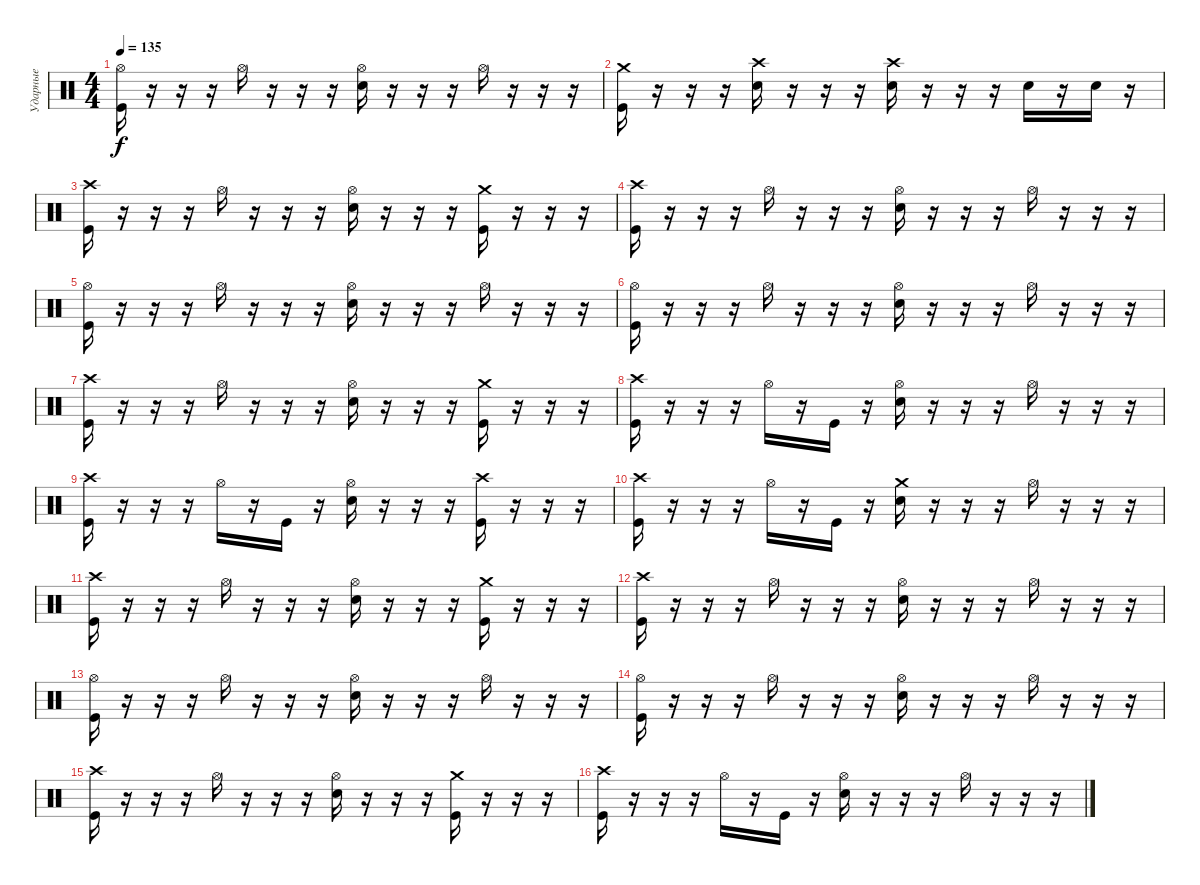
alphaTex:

\track ("Ударные" "Ударные") {instrument percussion}
\staff {score}
\articulation defaults
\ts (4 4)
\tempo 135
\clef neutral
\ks c
("Hi-Hat (open)" "Kick (hit)").16{dy f} r.16 r.16 r.16 "Hi-Hat (open)".16 r.16 r.16 r.16 ("Hi-Hat (open)" "Electric Snare (hit)").16 r.16 r.16 r.16 "Hi-Hat (open)".16 r.16 r.16 r.16 |
("Crash medium (hit)" "Kick (hit)").16 r.16 r.16 r.16 ("Crash high (hit)" "Electric Snare (hit)").16 r.16 r.16 r.16 ("Crash high (hit)" "Electric Snare (hit)").16 r.16 r.16 r.16 "Electric Snare (hit)".16 r.16 "Electric Snare (hit)".16 r.16 |
("Crash high (hit)" "Kick (hit)").16 r.16 r.16 r.16 "Hi-Hat (open)".16 r.16 r.16 r.16 ("Hi-Hat (open)" "Electric Snare (hit)").16 r.16 r.16 r.16 ("Crash medium (hit)" "Kick (hit)").16 r.16 r.16 r.16 |
("Crash high (hit)" "Kick (hit)").16 r.16 r.16 r.16 "Hi-Hat (open)".16 r.16 r.16 r.16 ("Hi-Hat (open)" "Electric Snare (hit)").16 r.16 r.16 r.16 "Hi-Hat (open)".16 r.16 r.16 r.16 |
("Hi-Hat (open)" "Kick (hit)").16 r.16 r.16 r.16 "Hi-Hat (open)".16 r.16 r.16 r.16 ("Hi-Hat (open)" "Electric Snare (hit)").16 r.16 r.16 r.16 "Hi-Hat (open)".16 r.16 r.16 r.16 |
("Hi-Hat (open)" "Kick (hit)").16 r.16 r.16 r.16 "Hi-Hat (open)".16 r.16 r.16 r.16 ("Hi-Hat (open)" "Electric Snare (hit)").16 r.16 r.16 r.16 "Hi-Hat (open)".16 r.16 r.16 r.16 |
("Crash high (hit)" "Kick (hit)").16 r.16 r.16 r.16 "Hi-Hat (open)".16 r.16 r.16 r.16 ("Hi-Hat (open)" "Electric Snare (hit)").16 r.16 r.16 r.16 ("Crash medium (hit)" "Kick (hit)").16 r.16 r.16 r.16 |
("Crash high (hit)" "Kick (hit)").16 r.16 r.16 r.16 "Hi-Hat (open)".16 r.16 "Kick (hit)".16 r.16 ("Hi-Hat (open)" "Electric Snare (hit)").16 r.16 r.16 r.16 "Hi-Hat (open)".16 r.16 r.16 r.16 |
("Crash high (hit)" "Kick (hit)").16 r.16 r.16 r.16 "Hi-Hat (open)".16 r.16 "Kick (hit)".16 r.16 ("Hi-Hat (open)" "Electric Snare (hit)").16 r.16 r.16 r.16 ("Crash high (hit)" "Kick (hit)").16 r.16 r.16 r.16 |
("Crash high (hit)" "Kick (hit)").16 r.16 r.16 r.16 "Hi-Hat (open)".16 r.16 "Kick (hit)".16 r.16 ("Crash medium (hit)" "Electric Snare (hit)").16 r.16 r.16 r.16 "Hi-Hat (open)".16 r.16 r.16 r.16 |
("Crash high (hit)" "Kick (hit)").16 r.16 r.16 r.16 "Hi-Hat (open)".16 r.16 r.16 r.16 ("Hi-Hat (open)" "Electric Snare (hit)").16 r.16 r.16 r.16 ("Crash medium (hit)" "Kick (hit)").16 r.16 r.16 r.16 |
("Crash high (hit)" "Kick (hit)").16 r.16 r.16 r.16 "Hi-Hat (open)".16 r.16 r.16 r.16 ("Hi-Hat (open)" "Electric Snare (hit)").16 r.16 r.16 r.16 "Hi-Hat (open)".16 r.16 r.16 r.16 |
("Hi-Hat (open)" "Kick (hit)").16 r.16 r.16 r.16 "Hi-Hat (open)".16 r.16 r.16 r.16 ("Hi-Hat (open)" "Electric Snare (hit)").16 r.16 r.16 r.16 "Hi-Hat (open)".16 r.16 r.16 r.16 |
("Hi-Hat (open)" "Kick (hit)").16 r.16 r.16 r.16 "Hi-Hat (open)".16 r.16 r.16 r.16 ("Hi-Hat (open)" "Electric Snare (hit)").16 r.16 r.16 r.16 "Hi-Hat (open)".16 r.16 r.16 r.16 |
("Crash high (hit)" "Kick (hit)").16 r.16 r.16 r.16 "Hi-Hat (open)".16 r.16 r.16 r.16 ("Hi-Hat (open)" "Electric Snare (hit)").16 r.16 r.16 r.16 ("Crash medium (hit)" "Kick (hit)").16 r.16 r.16 r.16 |
("Crash high (hit)" "Kick (hit)").16 r.16 r.16 r.16 "Hi-Hat (open)".16 r.16 "Kick (hit)".16 r.16 ("Hi-Hat (open)" "Electric Snare (hit)").16 r.16 r.16 r.16 "Hi-Hat (open)".16 r.16 r.16 r.16
